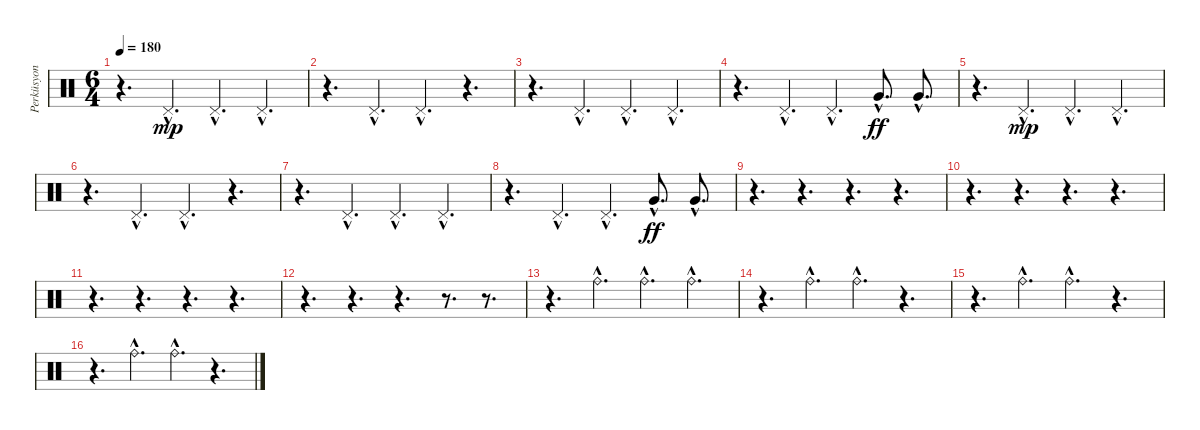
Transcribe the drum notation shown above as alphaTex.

\track ("Perküsyon" "Perküsyon") {instrument percussion}
\staff {score}
\articulation defaults
\ts (6 4)
\tempo 180
\tempo 140
\tempo 180
\clef neutral
\ks c
r.4{d dy mp} "Pedal Hi-Hat (hit)"{hac}.4{d} "Pedal Hi-Hat (hit)"{hac}.4{d} "Pedal Hi-Hat (hit)"{hac}.4{d} |
r.4{d} "Pedal Hi-Hat (hit)"{hac}.4{d} "Pedal Hi-Hat (hit)"{hac}.4{d} r.4{d} |
r.4{d} "Pedal Hi-Hat (hit)"{hac}.4{d} "Pedal Hi-Hat (hit)"{hac}.4{d} "Pedal Hi-Hat (hit)"{hac}.4{d} |
r.4{d} "Pedal Hi-Hat (hit)"{hac}.4{d} "Pedal Hi-Hat (hit)"{hac}.4{d} "Very Low Tom (hit)"{hac}.8{d dy ff} "Very Low Tom (hit)"{hac}.8{d} |
r.4{d} "Pedal Hi-Hat (hit)"{hac}.4{d dy mp} "Pedal Hi-Hat (hit)"{hac}.4{d} "Pedal Hi-Hat (hit)"{hac}.4{d} |
r.4{d} "Pedal Hi-Hat (hit)"{hac}.4{d} "Pedal Hi-Hat (hit)"{hac}.4{d} r.4{d} |
r.4{d} "Pedal Hi-Hat (hit)"{hac}.4{d} "Pedal Hi-Hat (hit)"{hac}.4{d} "Pedal Hi-Hat (hit)"{hac}.4{d} |
r.4{d} "Pedal Hi-Hat (hit)"{hac}.4{d} "Pedal Hi-Hat (hit)"{hac}.4{d} "Very Low Tom (hit)"{hac}.8{d dy ff} "Very Low Tom (hit)"{hac}.8{d} |
r.4{d} r.4{d} r.4{d} r.4{d} |
r.4{d} r.4{d} r.4{d} r.4{d} |
r.4{d} r.4{d} r.4{d} r.4{d} |
r.4{d} r.4{d} r.4{d} r.8{d} r.8{d} |
r.4{d} "Ride (bell)"{hac}.4{d} "Ride (bell)"{hac}.4{d} "Ride (bell)"{hac}.4{d} |
r.4{d} "Ride (bell)"{hac}.4{d} "Ride (bell)"{hac}.4{d} r.4{d} |
r.4{d} "Ride (bell)"{hac}.4{d} "Ride (bell)"{hac}.4{d} r.4{d} |
r.4{d} "Ride (bell)"{hac}.4{d} "Ride (bell)"{hac}.4{d} r.4{d}
